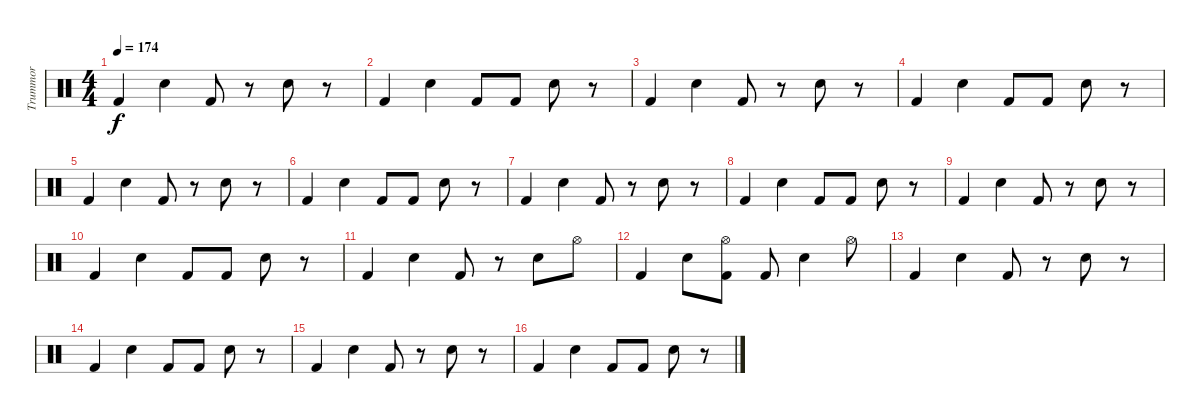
\track ("Trummor" "Trummor") {instrument percussion}
\staff {score}
\articulation defaults
\ts (4 4)
\tempo 174
\clef neutral
\ks c "Kick (hit) 2".4{dy f} "Snare (hit) 2".4 "Kick (hit) 2".8
r.8 "Snare (hit) 2".8 r.8 |
"Kick (hit) 2".4 "Snare (hit) 2".4 "Kick (hit) 2".8 "Kick (hit) 2".8 "Snare (hit) 2".8 r.8 |
"Kick (hit) 2".4 "Snare (hit) 2".4 "Kick (hit) 2".8 r.8 "Snare (hit) 2".8 r.8 |
"Kick (hit) 2".4 "Snare (hit) 2".4 "Kick (hit) 2".8 "Kick (hit) 2".8 "Snare (hit) 2".8 r.8 |
"Kick (hit) 2".4 "Snare (hit) 2".4 "Kick (hit) 2".8 r.8 "Snare (hit) 2".8 r.8 |
"Kick (hit) 2".4 "Snare (hit) 2".4 "Kick (hit) 2".8 "Kick (hit) 2".8 "Snare (hit) 2".8 r.8 |
"Kick (hit) 2".4 "Snare (hit) 2".4 "Kick (hit) 2".8 r.8 "Snare (hit) 2".8 r.8 |
"Kick (hit) 2".4 "Snare (hit) 2".4 "Kick (hit) 2".8 "Kick (hit) 2".8 "Snare (hit) 2".8 r.8 |
"Kick (hit) 2".4 "Snare (hit) 2".4 "Kick (hit) 2".8 r.8 "Snare (hit) 2".8 r.8 |
"Kick (hit) 2".4 "Snare (hit) 2".4 "Kick (hit) 2".8 "Kick (hit) 2".8 "Snare (hit) 2".8 r.8 |
"Kick (hit) 2".4 "Snare (hit) 2".4 "Kick (hit) 2".8 r.8 "Snare (hit) 2".8 "Hi-Hat (open)".8 |
"Kick (hit) 2".4 "Snare (hit) 2".8 ("Hi-Hat (open)" "Kick (hit) 2").8 "Kick (hit) 2".8 "Snare (hit) 2".4 "Hi-Hat (open)".8 |
"Kick (hit) 2".4 "Snare (hit) 2".4 "Kick (hit) 2".8 r.8 "Snare (hit) 2".8 r.8 |
"Kick (hit) 2".4 "Snare (hit) 2".4 "Kick (hit) 2".8 "Kick (hit) 2".8 "Snare (hit) 2".8 r.8 |
"Kick (hit) 2".4 "Snare (hit) 2".4 "Kick (hit) 2".8 r.8 "Snare (hit) 2".8 r.8 |
"Kick (hit) 2".4 "Snare (hit) 2".4 "Kick (hit) 2".8 "Kick (hit) 2".8 "Snare (hit) 2".8 r.8
